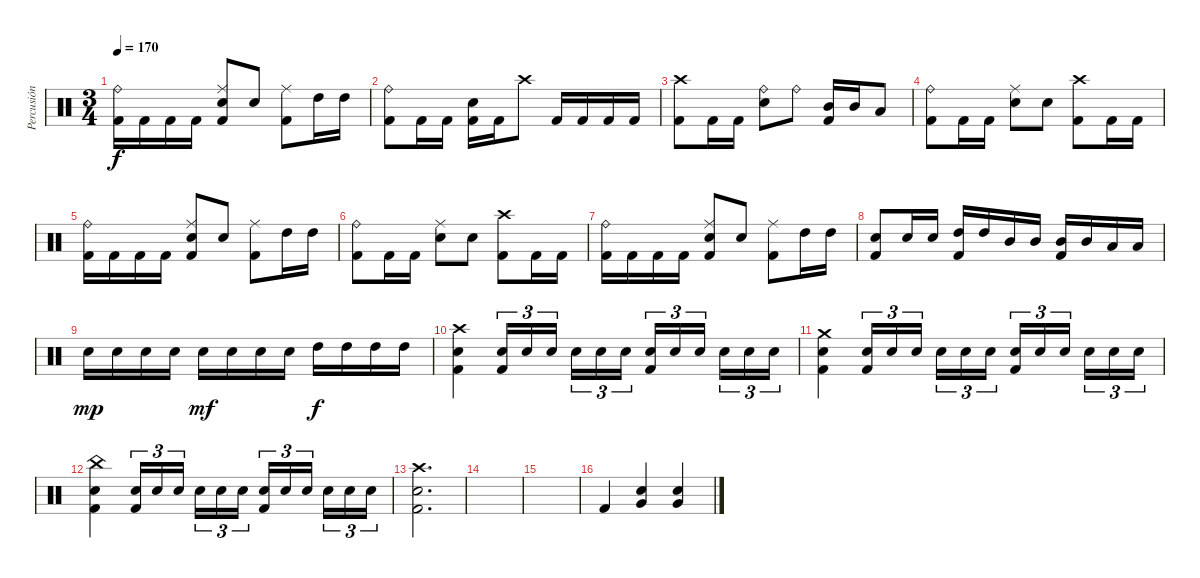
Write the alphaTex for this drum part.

\track ("Percusión" "Percusión") {instrument percussion}
\staff {score}
\articulation defaults
\ts (3 4)
\tempo 170
\clef neutral
\ks c
("Ride (bell)" "Kick (hit) 2").16{dy f} "Kick (hit) 2".16 "Kick (hit) 2".16 "Kick (hit) 2".16 ("Ride (middle)" "Snare (hit) 2" "Kick (hit) 2").8 "Snare (hit) 2".8 ("Ride (middle)" "Kick (hit) 2").8 "High Tom (hit)".16 "High Tom (hit)".16 |
("Ride (bell)" "Kick (hit) 2").8 "Kick (hit) 2".16 "Kick (hit) 2".16 ("Snare (hit) 2" "Kick (hit) 2").16 "Kick (hit) 2".16 "Crash high (hit)".8 "Kick (hit) 2".16 "Kick (hit) 2".16 "Kick (hit) 2".16 "Kick (hit) 2".16 |
("Crash high (hit)" "Kick (hit) 2").8 "Kick (hit) 2".16 "Kick (hit) 2".16 ("Ride (bell)" "Snare (hit) 2").8 "Ride (bell)".8 ("Mid Tom (hit)" "Kick (hit) 2").16 "Mid Tom (hit)".16 "Low Tom (hit)".8 |
("Ride (bell)" "Kick (hit) 2").8 "Kick (hit) 2".16 "Kick (hit) 2".16 ("Ride (middle)" "Snare (hit) 2").8 "Snare (hit) 2".8 ("Crash high (hit)" "Kick (hit) 2").8 "Kick (hit) 2".16 "Kick (hit) 2".16 |
("Ride (bell)" "Kick (hit) 2").16 "Kick (hit) 2".16 "Kick (hit) 2".16 "Kick (hit) 2".16 ("Ride (middle)" "Snare (hit) 2" "Kick (hit) 2").8 "Snare (hit) 2".8 ("Ride (middle)" "Kick (hit) 2").8 "High Tom (hit)".16 "High Tom (hit)".16 |
("Ride (bell)" "Kick (hit) 2").8 "Kick (hit) 2".16 "Kick (hit) 2".16 ("Ride (middle)" "Snare (hit) 2").8 "Snare (hit) 2".8 ("Crash high (hit)" "Kick (hit) 2").8 "Kick (hit) 2".16 "Kick (hit) 2".16 |
("Ride (bell)" "Kick (hit) 2").16 "Kick (hit) 2".16 "Kick (hit) 2".16 "Kick (hit) 2".16 ("Ride (middle)" "Snare (hit) 2" "Kick (hit) 2").8 "Snare (hit) 2".8 ("Ride (middle)" "Kick (hit) 2").8 "High Tom (hit)".16 "High Tom (hit)".16 |
("Snare (hit) 2" "Kick (hit) 2").8 "Snare (hit) 2".16 "Snare (hit) 2".16 ("High Tom (hit)" "Kick (hit) 2").16 "High Tom (hit)".16 "Mid Tom (hit)".16 "Mid Tom (hit)".16 ("Mid Tom (hit)" "Kick (hit) 2").16 "Mid Tom (hit)".16 "Low Tom (hit)".16 "Low Tom (hit)".16 |
"Snare (hit) 2".16{dy mp} "Snare (hit) 2".16 "Snare (hit) 2".16 "Snare (hit) 2".16 "Snare (hit) 2".16{dy mf} "Snare (hit) 2".16 "Snare (hit) 2".16 "Snare (hit) 2".16 "High Tom (hit)".16{dy f} "High Tom (hit)".16 "High Tom (hit)".16 "High Tom (hit)".16 |
("Crash high (hit)" "Snare (hit) 2" "Kick (hit) 2").4 ("Snare (hit) 2" "Kick (hit) 2").16{tu (3 2)} "Snare (hit) 2".16{tu (3 2)} "Snare (hit) 2".16{tu (3 2) beam splitsecondary} "Snare (hit) 2".16{tu (3 2)} "Snare (hit) 2".16{tu (3 2)} "Snare (hit) 2".16{tu (3 2)} ("Snare (hit) 2" "Kick (hit) 2").16{tu (3 2)} "Snare (hit) 2".16{tu (3 2)} "Snare (hit) 2".16{tu (3 2) beam splitsecondary} "Snare (hit) 2".16{tu (3 2)} "Snare (hit) 2".16{tu (3 2)} "Snare (hit) 2".16{tu (3 2)} |
("Crash medium (hit)" "Snare (hit) 2" "Kick (hit) 2").4 ("Snare (hit) 2" "Kick (hit) 2").16{tu (3 2)} "Snare (hit) 2".16{tu (3 2)} "Snare (hit) 2".16{tu (3 2) beam splitsecondary} "Snare (hit) 2".16{tu (3 2)} "Snare (hit) 2".16{tu (3 2)} "Snare (hit) 2".16{tu (3 2)} ("Snare (hit) 2" "Kick (hit) 2").16{tu (3 2)} "Snare (hit) 2".16{tu (3 2)} "Snare (hit) 2".16{tu (3 2) beam splitsecondary} "Snare (hit) 2".16{tu (3 2)} "Snare (hit) 2".16{tu (3 2)} "Snare (hit) 2".16{tu (3 2)} |
("China (hit)" "Snare (hit) 2" "Kick (hit) 2").4 ("Snare (hit) 2" "Kick (hit) 2").16{tu (3 2)} "Snare (hit) 2".16{tu (3 2)} "Snare (hit) 2".16{tu (3 2) beam splitsecondary} "Snare (hit) 2".16{tu (3 2)} "Snare (hit) 2".16{tu (3 2)} "Snare (hit) 2".16{tu (3 2)} ("Snare (hit) 2" "Kick (hit) 2").16{tu (3 2)} "Snare (hit) 2".16{tu (3 2)} "Snare (hit) 2".16{tu (3 2) beam splitsecondary} "Snare (hit) 2".16{tu (3 2)} "Snare (hit) 2".16{tu (3 2)} "Snare (hit) 2".16{tu (3 2)} |
("Crash high (hit)" "Snare (hit) 2" "Kick (hit) 2").2{d} |
|
|
"Kick (hit) 2".4 ("Snare (hit) 2" "Very Low Tom (hit)").4 ("Snare (hit) 2" "Very Low Tom (hit)").4
